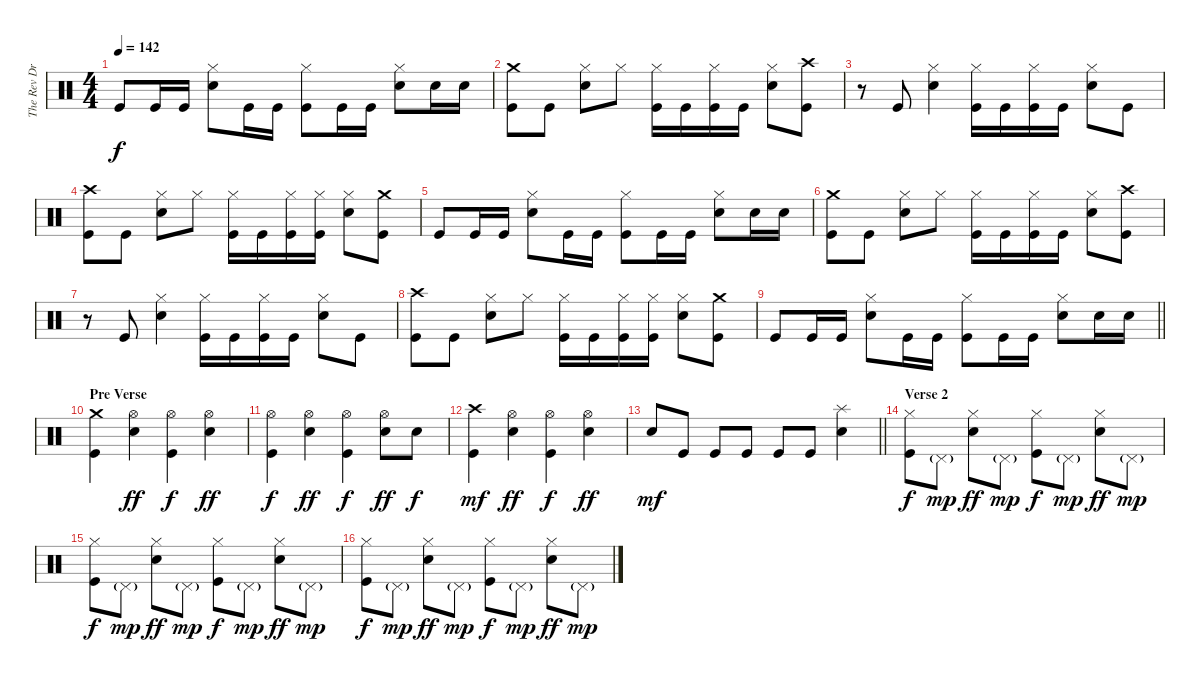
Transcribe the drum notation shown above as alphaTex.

\track ("The Rev Drums" "The Rev Dr") {instrument percussion}
\staff {score}
\articulation defaults
\ts (4 4)
\tempo 142
\clef neutral
\ks c "Kick (hit)".8{dy f} "Kick (hit)".16 "Kick (hit)".16
("Hi-Hat (closed)" "Electric Snare (hit)").8 "Kick (hit)".16 "Kick (hit)".16 ("Hi-Hat (closed)" "Kick (hit)").8 "Kick (hit)".16 "Kick (hit)".16 ("Hi-Hat (closed)" "Electric Snare (hit)").8 "Electric Snare (hit)".16 "Electric Snare (hit)".16 |
("Crash medium (hit)" "Kick (hit)").8 "Kick (hit)".8 ("Hi-Hat (closed)" "Electric Snare (hit)").8 "Hi-Hat (closed)".8 ("Hi-Hat (closed)" "Kick (hit)").16 "Kick (hit)".16 ("Hi-Hat (closed)" "Kick (hit)").16 "Kick (hit)".16 ("Hi-Hat (closed)" "Electric Snare (hit)").8 ("Crash high (hit)" "Kick (hit)").8 |
r.8 "Kick (hit)".8 ("Hi-Hat (closed)" "Electric Snare (hit)").4 ("Hi-Hat (closed)" "Kick (hit)").16 "Kick (hit)".16 ("Hi-Hat (closed)" "Kick (hit)").16 "Kick (hit)".16 ("Hi-Hat (closed)" "Electric Snare (hit)").8 "Kick (hit)".8 |
("Crash high (hit)" "Kick (hit)").8 "Kick (hit)".8 ("Hi-Hat (closed)" "Electric Snare (hit)").8 "Hi-Hat (closed)".8 ("Hi-Hat (closed)" "Kick (hit)").16 "Kick (hit)".16 ("Hi-Hat (closed)" "Kick (hit)").16 ("Hi-Hat (closed)" "Kick (hit)").16 ("Hi-Hat (closed)" "Electric Snare (hit)").8 ("Crash medium (hit)" "Kick (hit)").8 |
"Kick (hit)".8 "Kick (hit)".16 "Kick (hit)".16 ("Hi-Hat (closed)" "Electric Snare (hit)").8 "Kick (hit)".16 "Kick (hit)".16 ("Hi-Hat (closed)" "Kick (hit)").8 "Kick (hit)".16 "Kick (hit)".16 ("Hi-Hat (closed)" "Electric Snare (hit)").8 "Electric Snare (hit)".16 "Electric Snare (hit)".16 |
("Crash medium (hit)" "Kick (hit)").8 "Kick (hit)".8 ("Hi-Hat (closed)" "Electric Snare (hit)").8 "Hi-Hat (closed)".8 ("Hi-Hat (closed)" "Kick (hit)").16 "Kick (hit)".16 ("Hi-Hat (closed)" "Kick (hit)").16 "Kick (hit)".16 ("Hi-Hat (closed)" "Electric Snare (hit)").8 ("Crash high (hit)" "Kick (hit)").8 |
r.8 "Kick (hit)".8 ("Hi-Hat (closed)" "Electric Snare (hit)").4 ("Hi-Hat (closed)" "Kick (hit)").16 "Kick (hit)".16 ("Hi-Hat (closed)" "Kick (hit)").16 "Kick (hit)".16 ("Hi-Hat (closed)" "Electric Snare (hit)").8 "Kick (hit)".8 |
("Crash high (hit)" "Kick (hit)").8 "Kick (hit)".8 ("Hi-Hat (closed)" "Electric Snare (hit)").8 "Hi-Hat (closed)".8 ("Hi-Hat (closed)" "Kick (hit)").16 "Kick (hit)".16 ("Hi-Hat (closed)" "Kick (hit)").16 ("Hi-Hat (closed)" "Kick (hit)").16 ("Hi-Hat (closed)" "Electric Snare (hit)").8 ("Crash medium (hit)" "Kick (hit)").8 |
\barLineRight lightlight "Kick (hit)".8 "Kick (hit)".16 "Kick (hit)".16
("Hi-Hat (closed)" "Electric Snare (hit)").8 "Kick (hit)".16 "Kick (hit)".16 ("Hi-Hat (closed)" "Kick (hit)").8 "Kick (hit)".16 "Kick (hit)".16 ("Hi-Hat (closed)" "Electric Snare (hit)").8 "Electric Snare (hit)".16 "Electric Snare (hit)".16 |
\section ("" "Pre Verse")
("Crash medium (hit)" "Kick (hit)").4 ("Hi-Hat (open)" "Electric Snare (hit)").4{dy ff} ("Hi-Hat (open)" "Kick (hit)").4{dy f} ("Hi-Hat (open)" "Electric Snare (hit)").4{dy ff} |
("Hi-Hat (open)" "Kick (hit)").4{dy f} ("Hi-Hat (open)" "Electric Snare (hit)").4{dy ff} ("Hi-Hat (open)" "Kick (hit)").4{dy f} ("Hi-Hat (open)" "Electric Snare (hit)").8{dy ff} "Electric Snare (hit)".8{dy f} |
("Crash high (hit)" "Kick (hit)").4{dy mf} ("Hi-Hat (open)" "Electric Snare (hit)").4{dy ff} ("Hi-Hat (open)" "Kick (hit)").4{dy f} ("Hi-Hat (open)" "Electric Snare (hit)").4{dy ff} |
\barLineRight lightlight "Electric Snare (hit)".8{dy mf} "Kick (hit)".8 "Kick (hit)".8 "Kick (hit)".8 "Kick (hit)".8 "Kick (hit)".8
("Splash (hit)" "Electric Snare (hit)").4 |
\section ("" "Verse 2")
("Hi-Hat (closed)" "Kick (hit)").8{dy f} "Pedal Hi-Hat (hit)"{g}.8{dy mp} ("Hi-Hat (closed)" "Electric Snare (hit)").8{dy ff} "Pedal Hi-Hat (hit)"{g}.8{dy mp} ("Hi-Hat (closed)" "Kick (hit)").8{dy f} "Pedal Hi-Hat (hit)"{g}.8{dy mp} ("Hi-Hat (closed)" "Electric Snare (hit)").8{dy ff} "Pedal Hi-Hat (hit)"{g}.8{dy mp} |
("Hi-Hat (closed)" "Kick (hit)").8{dy f} "Pedal Hi-Hat (hit)"{g}.8{dy mp} ("Hi-Hat (closed)" "Electric Snare (hit)").8{dy ff} "Pedal Hi-Hat (hit)"{g}.8{dy mp} ("Hi-Hat (closed)" "Kick (hit)").8{dy f} "Pedal Hi-Hat (hit)"{g}.8{dy mp} ("Hi-Hat (closed)" "Electric Snare (hit)").8{dy ff} "Pedal Hi-Hat (hit)"{g}.8{dy mp} |
("Hi-Hat (closed)" "Kick (hit)").8{dy f} "Pedal Hi-Hat (hit)"{g}.8{dy mp} ("Hi-Hat (closed)" "Electric Snare (hit)").8{dy ff} "Pedal Hi-Hat (hit)"{g}.8{dy mp} ("Hi-Hat (closed)" "Kick (hit)").8{dy f} "Pedal Hi-Hat (hit)"{g}.8{dy mp} ("Hi-Hat (closed)" "Electric Snare (hit)").8{dy ff} "Pedal Hi-Hat (hit)"{g}.8{dy mp}
